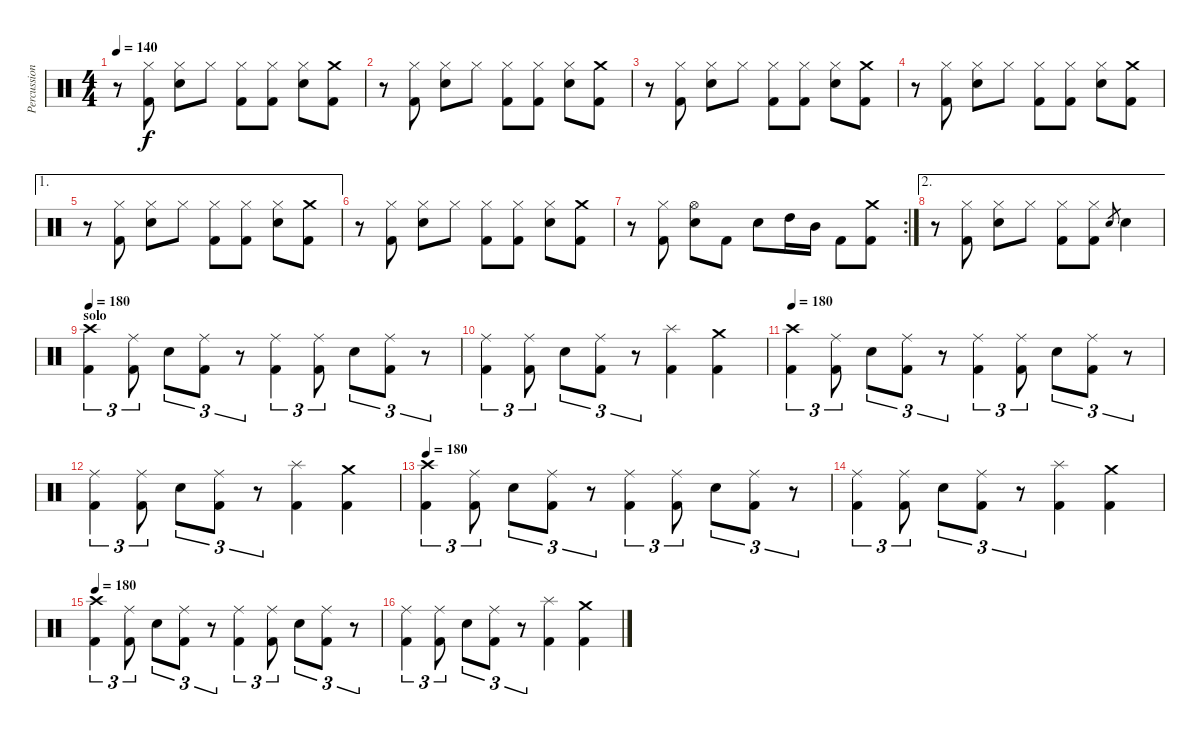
\track ("Percussions" "Percussion") {instrument percussion}
\staff {score}
\articulation defaults
\ts (4 4)
\tempo 140
\clef neutral
\ks c
r.8{dy f} ("Hi-Hat (closed)" "Kick (hit) 2").8 ("Hi-Hat (closed)" "Electric Snare (hit)").8 "Hi-Hat (closed)".8 ("Hi-Hat (closed)" "Kick (hit) 2").8 ("Hi-Hat (closed)" "Kick (hit) 2").8 ("Hi-Hat (closed)" "Electric Snare (hit)").8 ("Crash medium (hit)" "Kick (hit) 2").8 |
r.8 ("Hi-Hat (closed)" "Kick (hit) 2").8 ("Hi-Hat (closed)" "Electric Snare (hit)").8 "Hi-Hat (closed)".8 ("Hi-Hat (closed)" "Kick (hit) 2").8 ("Hi-Hat (closed)" "Kick (hit) 2").8 ("Hi-Hat (closed)" "Electric Snare (hit)").8 ("Crash medium (hit)" "Kick (hit) 2").8 |
r.8 ("Hi-Hat (closed)" "Kick (hit) 2").8 ("Hi-Hat (closed)" "Electric Snare (hit)").8 "Hi-Hat (closed)".8 ("Hi-Hat (closed)" "Kick (hit) 2").8 ("Hi-Hat (closed)" "Kick (hit) 2").8 ("Hi-Hat (closed)" "Electric Snare (hit)").8 ("Crash medium (hit)" "Kick (hit) 2").8 |
r.8 ("Hi-Hat (closed)" "Kick (hit) 2").8 ("Hi-Hat (closed)" "Electric Snare (hit)").8 "Hi-Hat (closed)".8 ("Hi-Hat (closed)" "Kick (hit) 2").8 ("Hi-Hat (closed)" "Kick (hit) 2").8 ("Hi-Hat (closed)" "Electric Snare (hit)").8 ("Crash medium (hit)" "Kick (hit) 2").8 |
\ae 1
r.8 ("Hi-Hat (closed)" "Kick (hit) 2").8 ("Hi-Hat (closed)" "Electric Snare (hit)").8 "Hi-Hat (closed)".8 ("Hi-Hat (closed)" "Kick (hit) 2").8 ("Hi-Hat (closed)" "Kick (hit) 2").8 ("Hi-Hat (closed)" "Electric Snare (hit)").8 ("Crash medium (hit)" "Kick (hit) 2").8 |
r.8 ("Hi-Hat (closed)" "Kick (hit) 2").8 ("Hi-Hat (closed)" "Electric Snare (hit)").8 "Hi-Hat (closed)".8 ("Hi-Hat (closed)" "Kick (hit) 2").8 ("Hi-Hat (closed)" "Kick (hit) 2").8 ("Hi-Hat (closed)" "Electric Snare (hit)").8 ("Crash medium (hit)" "Kick (hit) 2").8 |
\rc 2
r.8 ("Hi-Hat (closed)" "Kick (hit) 2").8 ("Hi-Hat (open)" "Electric Snare (hit)").8 "Kick (hit) 2".8 "Electric Snare (hit)".8 "High Tom (hit)".16 "Mid Tom (hit)".16 "Kick (hit) 2".8 ("Crash medium (hit)" "Kick (hit) 2").8 |
\ae 2
r.8 ("Hi-Hat (closed)" "Kick (hit) 2").8 ("Hi-Hat (closed)" "Electric Snare (hit)").8 "Hi-Hat (closed)".8 ("Hi-Hat (closed)" "Kick (hit) 2").8 ("Hi-Hat (closed)" "Kick (hit) 2").8 "Electric Snare (hit)".8{gr} "Electric Snare (hit)".4 |
\section ("" "solo")
\tempo 180
("Crash high (hit)" "Kick (hit) 2").4{tu (3 2)} ("Ride (middle)" "Kick (hit) 2").8{tu (3 2)} "Electric Snare (hit)".8{tu (3 2)} ("Ride (middle)" "Kick (hit) 2").8{tu (3 2)} r.8{tu (3 2)} ("Ride (middle)" "Kick (hit) 2").4{tu (3 2)} ("Ride (middle)" "Kick (hit) 2").8{tu (3 2)} "Electric Snare (hit)".8{tu (3 2)} ("Ride (middle)" "Kick (hit) 2").8{tu (3 2)} r.8{tu (3 2)} |
("Ride (middle)" "Kick (hit) 2").4{tu (3 2)} ("Ride (middle)" "Kick (hit) 2").8{tu (3 2)} "Electric Snare (hit)".8{tu (3 2)} ("Ride (middle)" "Kick (hit) 2").8{tu (3 2)} r.8{tu (3 2)} ("Splash (hit)" "Kick (hit) 2").4 ("Crash medium (hit)" "Kick (hit) 2").4 |
\tempo 180
("Crash high (hit)" "Kick (hit) 2").4{tu (3 2)} ("Ride (middle)" "Kick (hit) 2").8{tu (3 2)} "Electric Snare (hit)".8{tu (3 2)} ("Ride (middle)" "Kick (hit) 2").8{tu (3 2)} r.8{tu (3 2)} ("Ride (middle)" "Kick (hit) 2").4{tu (3 2)} ("Ride (middle)" "Kick (hit) 2").8{tu (3 2)} "Electric Snare (hit)".8{tu (3 2)} ("Ride (middle)" "Kick (hit) 2").8{tu (3 2)} r.8{tu (3 2)} |
("Ride (middle)" "Kick (hit) 2").4{tu (3 2)} ("Ride (middle)" "Kick (hit) 2").8{tu (3 2)} "Electric Snare (hit)".8{tu (3 2)} ("Ride (middle)" "Kick (hit) 2").8{tu (3 2)} r.8{tu (3 2)} ("Splash (hit)" "Kick (hit) 2").4 ("Crash medium (hit)" "Kick (hit) 2").4 |
\tempo 180
("Crash high (hit)" "Kick (hit) 2").4{tu (3 2)} ("Ride (middle)" "Kick (hit) 2").8{tu (3 2)} "Electric Snare (hit)".8{tu (3 2)} ("Ride (middle)" "Kick (hit) 2").8{tu (3 2)} r.8{tu (3 2)} ("Ride (middle)" "Kick (hit) 2").4{tu (3 2)} ("Ride (middle)" "Kick (hit) 2").8{tu (3 2)} "Electric Snare (hit)".8{tu (3 2)} ("Ride (middle)" "Kick (hit) 2").8{tu (3 2)} r.8{tu (3 2)} |
("Ride (middle)" "Kick (hit) 2").4{tu (3 2)} ("Ride (middle)" "Kick (hit) 2").8{tu (3 2)} "Electric Snare (hit)".8{tu (3 2)} ("Ride (middle)" "Kick (hit) 2").8{tu (3 2)} r.8{tu (3 2)} ("Splash (hit)" "Kick (hit) 2").4 ("Crash medium (hit)" "Kick (hit) 2").4 |
\tempo 180
("Crash high (hit)" "Kick (hit) 2").4{tu (3 2)} ("Ride (middle)" "Kick (hit) 2").8{tu (3 2)} "Electric Snare (hit)".8{tu (3 2)} ("Ride (middle)" "Kick (hit) 2").8{tu (3 2)} r.8{tu (3 2)} ("Ride (middle)" "Kick (hit) 2").4{tu (3 2)} ("Ride (middle)" "Kick (hit) 2").8{tu (3 2)} "Electric Snare (hit)".8{tu (3 2)} ("Ride (middle)" "Kick (hit) 2").8{tu (3 2)} r.8{tu (3 2)} |
("Ride (middle)" "Kick (hit) 2").4{tu (3 2)} ("Ride (middle)" "Kick (hit) 2").8{tu (3 2)} "Electric Snare (hit)".8{tu (3 2)} ("Ride (middle)" "Kick (hit) 2").8{tu (3 2)} r.8{tu (3 2)} ("Splash (hit)" "Kick (hit) 2").4 ("Crash medium (hit)" "Kick (hit) 2").4
